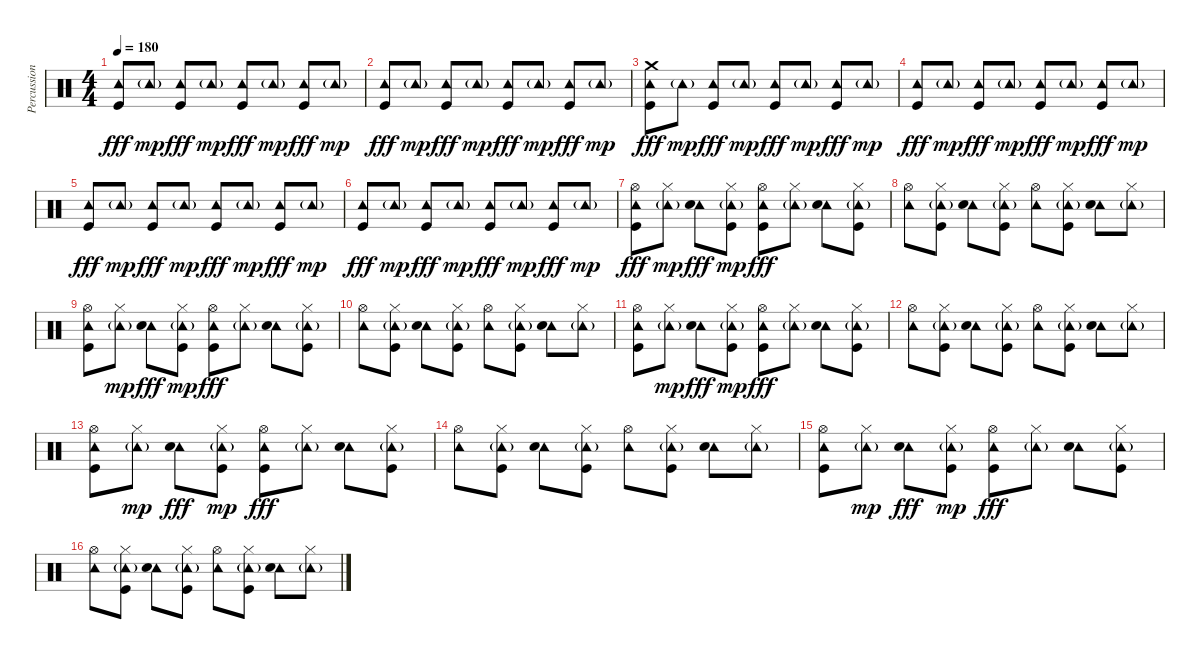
\track ("Percussion" "Percussion") {instrument percussion}
\staff {score}
\articulation defaults
\ts (4 4)
\tempo 180
\clef neutral
\ks c
("Tambourine (hit)" "Kick (hit)").8{dy fff} "Tambourine (hit)"{g}.8{dy mp} ("Tambourine (hit)" "Kick (hit)").8{dy fff} "Tambourine (hit)"{g}.8{dy mp} ("Tambourine (hit)" "Kick (hit)").8{dy fff} "Tambourine (hit)"{g}.8{dy mp} ("Tambourine (hit)" "Kick (hit)").8{dy fff} "Tambourine (hit)"{g}.8{dy mp} |
("Tambourine (hit)" "Kick (hit)").8{dy fff} "Tambourine (hit)"{g}.8{dy mp} ("Tambourine (hit)" "Kick (hit)").8{dy fff} "Tambourine (hit)"{g}.8{dy mp} ("Tambourine (hit)" "Kick (hit)").8{dy fff} "Tambourine (hit)"{g}.8{dy mp} ("Tambourine (hit)" "Kick (hit)").8{dy fff} "Tambourine (hit)"{g}.8{dy mp} |
("Crash medium (hit)" "Tambourine (hit)" "Kick (hit)").8{dy fff} "Tambourine (hit)"{g}.8{dy mp} ("Tambourine (hit)" "Kick (hit)").8{dy fff} "Tambourine (hit)"{g}.8{dy mp} ("Tambourine (hit)" "Kick (hit)").8{dy fff} "Tambourine (hit)"{g}.8{dy mp} ("Tambourine (hit)" "Kick (hit)").8{dy fff} "Tambourine (hit)"{g}.8{dy mp} |
("Tambourine (hit)" "Kick (hit)").8{dy fff} "Tambourine (hit)"{g}.8{dy mp} ("Tambourine (hit)" "Kick (hit)").8{dy fff} "Tambourine (hit)"{g}.8{dy mp} ("Tambourine (hit)" "Kick (hit)").8{dy fff} "Tambourine (hit)"{g}.8{dy mp} ("Tambourine (hit)" "Kick (hit)").8{dy fff} "Tambourine (hit)"{g}.8{dy mp} |
("Tambourine (hit)" "Kick (hit)").8{dy fff} "Tambourine (hit)"{g}.8{dy mp} ("Tambourine (hit)" "Kick (hit)").8{dy fff} "Tambourine (hit)"{g}.8{dy mp} ("Tambourine (hit)" "Kick (hit)").8{dy fff} "Tambourine (hit)"{g}.8{dy mp} ("Tambourine (hit)" "Kick (hit)").8{dy fff} "Tambourine (hit)"{g}.8{dy mp} |
("Tambourine (hit)" "Kick (hit)").8{dy fff} "Tambourine (hit)"{g}.8{dy mp} ("Tambourine (hit)" "Kick (hit)").8{dy fff} "Tambourine (hit)"{g}.8{dy mp} ("Tambourine (hit)" "Kick (hit)").8{dy fff} "Tambourine (hit)"{g}.8{dy mp} ("Tambourine (hit)" "Kick (hit)").8{dy fff} "Tambourine (hit)"{g}.8{dy mp} |
("Tambourine (hit)" "Hi-Hat (open)" "Kick (hit)").8{dy fff} ("Tambourine (hit)"{g} "Hi-Hat (closed)").8{dy mp} ("Tambourine (hit)" "Electric Snare (hit)").8{dy fff} ("Tambourine (hit)"{g} "Hi-Hat (closed)" "Kick (hit)").8{dy mp} ("Tambourine (hit)" "Hi-Hat (open)" "Kick (hit)").8{dy fff} ("Tambourine (hit)"{g} "Hi-Hat (closed)").8 ("Tambourine (hit)" "Electric Snare (hit)").8 ("Tambourine (hit)"{g} "Hi-Hat (closed)" "Kick (hit)").8 |
("Tambourine (hit)" "Hi-Hat (open)").8 ("Tambourine (hit)"{g} "Hi-Hat (closed)" "Kick (hit)").8 ("Tambourine (hit)" "Electric Snare (hit)").8 ("Tambourine (hit)"{g} "Hi-Hat (closed)" "Kick (hit)").8 ("Tambourine (hit)" "Hi-Hat (open)").8 ("Tambourine (hit)"{g} "Hi-Hat (closed)" "Kick (hit)").8 ("Tambourine (hit)" "Electric Snare (hit)").8 ("Tambourine (hit)"{g} "Hi-Hat (closed)").8 |
("Tambourine (hit)" "Hi-Hat (open)" "Kick (hit)").8 ("Tambourine (hit)"{g} "Hi-Hat (closed)").8{dy mp} ("Tambourine (hit)" "Electric Snare (hit)").8{dy fff} ("Tambourine (hit)"{g} "Hi-Hat (closed)" "Kick (hit)").8{dy mp} ("Tambourine (hit)" "Hi-Hat (open)" "Kick (hit)").8{dy fff} ("Tambourine (hit)"{g} "Hi-Hat (closed)").8 ("Tambourine (hit)" "Electric Snare (hit)").8 ("Tambourine (hit)"{g} "Hi-Hat (closed)" "Kick (hit)").8 |
("Tambourine (hit)" "Hi-Hat (open)").8 ("Tambourine (hit)"{g} "Hi-Hat (closed)" "Kick (hit)").8 ("Tambourine (hit)" "Electric Snare (hit)").8 ("Tambourine (hit)"{g} "Hi-Hat (closed)" "Kick (hit)").8 ("Tambourine (hit)" "Hi-Hat (open)").8 ("Tambourine (hit)"{g} "Hi-Hat (closed)" "Kick (hit)").8 ("Tambourine (hit)" "Electric Snare (hit)").8 ("Tambourine (hit)"{g} "Hi-Hat (closed)").8 |
("Tambourine (hit)" "Hi-Hat (open)" "Kick (hit)").8 ("Tambourine (hit)"{g} "Hi-Hat (closed)").8{dy mp} ("Tambourine (hit)" "Electric Snare (hit)").8{dy fff} ("Tambourine (hit)"{g} "Hi-Hat (closed)" "Kick (hit)").8{dy mp} ("Tambourine (hit)" "Hi-Hat (open)" "Kick (hit)").8{dy fff} ("Tambourine (hit)"{g} "Hi-Hat (closed)").8 ("Tambourine (hit)" "Electric Snare (hit)").8 ("Tambourine (hit)"{g} "Hi-Hat (closed)" "Kick (hit)").8 |
("Tambourine (hit)" "Hi-Hat (open)").8 ("Tambourine (hit)"{g} "Hi-Hat (closed)" "Kick (hit)").8 ("Tambourine (hit)" "Electric Snare (hit)").8 ("Tambourine (hit)"{g} "Hi-Hat (closed)" "Kick (hit)").8 ("Tambourine (hit)" "Hi-Hat (open)").8 ("Tambourine (hit)"{g} "Hi-Hat (closed)" "Kick (hit)").8 ("Tambourine (hit)" "Electric Snare (hit)").8 ("Tambourine (hit)"{g} "Hi-Hat (closed)").8 |
("Tambourine (hit)" "Hi-Hat (open)" "Kick (hit)").8 ("Tambourine (hit)"{g} "Hi-Hat (closed)").8{dy mp} ("Tambourine (hit)" "Electric Snare (hit)").8{dy fff} ("Tambourine (hit)"{g} "Hi-Hat (closed)" "Kick (hit)").8{dy mp} ("Tambourine (hit)" "Hi-Hat (open)" "Kick (hit)").8{dy fff} ("Tambourine (hit)"{g} "Hi-Hat (closed)").8 ("Tambourine (hit)" "Electric Snare (hit)").8 ("Tambourine (hit)"{g} "Hi-Hat (closed)" "Kick (hit)").8 |
("Tambourine (hit)" "Hi-Hat (open)").8 ("Tambourine (hit)"{g} "Hi-Hat (closed)" "Kick (hit)").8 ("Tambourine (hit)" "Electric Snare (hit)").8 ("Tambourine (hit)"{g} "Hi-Hat (closed)" "Kick (hit)").8 ("Tambourine (hit)" "Hi-Hat (open)").8 ("Tambourine (hit)"{g} "Hi-Hat (closed)" "Kick (hit)").8 ("Tambourine (hit)" "Electric Snare (hit)").8 ("Tambourine (hit)"{g} "Hi-Hat (closed)").8 |
("Tambourine (hit)" "Hi-Hat (open)" "Kick (hit)").8 ("Tambourine (hit)"{g} "Hi-Hat (closed)").8{dy mp} ("Tambourine (hit)" "Electric Snare (hit)").8{dy fff} ("Tambourine (hit)"{g} "Hi-Hat (closed)" "Kick (hit)").8{dy mp} ("Tambourine (hit)" "Hi-Hat (open)" "Kick (hit)").8{dy fff} ("Tambourine (hit)"{g} "Hi-Hat (closed)").8 ("Tambourine (hit)" "Electric Snare (hit)").8 ("Tambourine (hit)"{g} "Hi-Hat (closed)" "Kick (hit)").8 |
("Tambourine (hit)" "Hi-Hat (open)").8 ("Tambourine (hit)"{g} "Hi-Hat (closed)" "Kick (hit)").8 ("Tambourine (hit)" "Electric Snare (hit)").8 ("Tambourine (hit)"{g} "Hi-Hat (closed)" "Kick (hit)").8 ("Tambourine (hit)" "Hi-Hat (open)").8 ("Tambourine (hit)"{g} "Hi-Hat (closed)" "Kick (hit)").8 ("Tambourine (hit)" "Electric Snare (hit)").8 ("Tambourine (hit)"{g} "Hi-Hat (closed)").8
